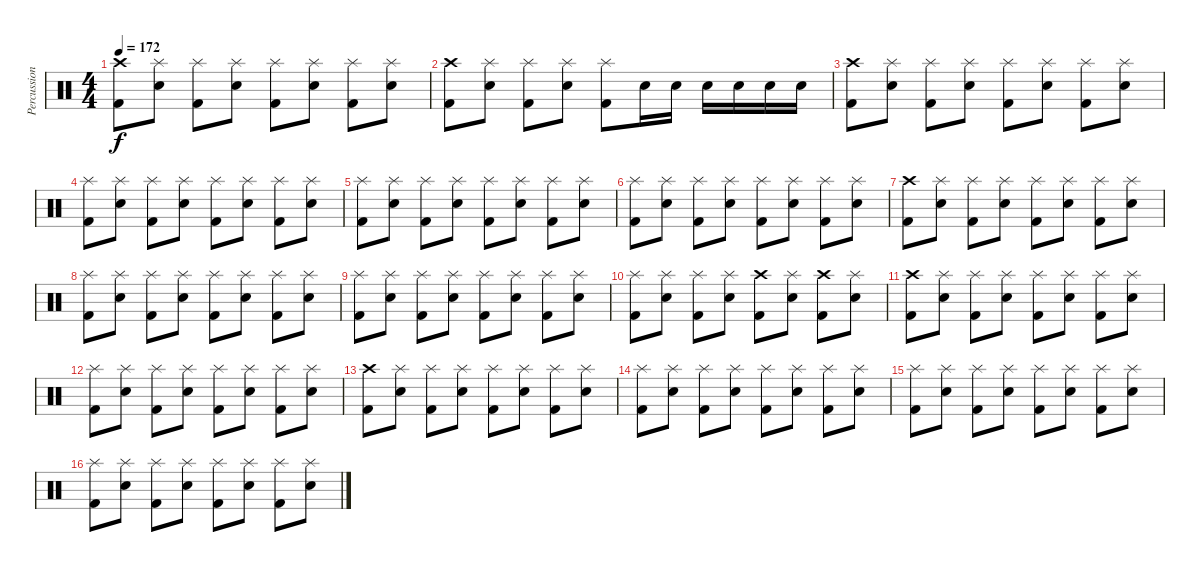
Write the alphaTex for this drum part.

\track ("Percussions" "Percussion") {instrument percussion}
\staff {score}
\articulation defaults
\ts (4 4)
\tempo 172
\clef neutral
\ks c
("Crash high (hit)" "Kick (hit) 2").8{dy f} ("Splash (hit)" "Electric Snare (hit)").8 ("Splash (hit)" "Kick (hit) 2").8 ("Splash (hit)" "Electric Snare (hit)").8 ("Splash (hit)" "Kick (hit) 2").8 ("Splash (hit)" "Electric Snare (hit)").8 ("Splash (hit)" "Kick (hit) 2").8 ("Splash (hit)" "Electric Snare (hit)").8 |
("Crash high (hit)" "Kick (hit) 2").8 ("Splash (hit)" "Electric Snare (hit)").8 ("Splash (hit)" "Kick (hit) 2").8 ("Splash (hit)" "Electric Snare (hit)").8 ("Splash (hit)" "Kick (hit) 2").8 "Electric Snare (hit)".16 "Electric Snare (hit)".16 "Electric Snare (hit)".16 "Electric Snare (hit)".16 "Electric Snare (hit)".16 "Electric Snare (hit)".16 |
("Crash high (hit)" "Kick (hit) 2").8 ("Splash (hit)" "Electric Snare (hit)").8 ("Splash (hit)" "Kick (hit) 2").8 ("Splash (hit)" "Electric Snare (hit)").8 ("Splash (hit)" "Kick (hit) 2").8 ("Splash (hit)" "Electric Snare (hit)").8 ("Splash (hit)" "Kick (hit) 2").8 ("Splash (hit)" "Electric Snare (hit)").8 |
("Splash (hit)" "Kick (hit) 2").8 ("Splash (hit)" "Electric Snare (hit)").8 ("Splash (hit)" "Kick (hit) 2").8 ("Splash (hit)" "Electric Snare (hit)").8 ("Splash (hit)" "Kick (hit) 2").8 ("Splash (hit)" "Electric Snare (hit)").8 ("Splash (hit)" "Kick (hit) 2").8 ("Splash (hit)" "Electric Snare (hit)").8 |
("Splash (hit)" "Kick (hit) 2").8 ("Splash (hit)" "Electric Snare (hit)").8 ("Splash (hit)" "Kick (hit) 2").8 ("Splash (hit)" "Electric Snare (hit)").8 ("Splash (hit)" "Kick (hit) 2").8 ("Splash (hit)" "Electric Snare (hit)").8 ("Splash (hit)" "Kick (hit) 2").8 ("Splash (hit)" "Electric Snare (hit)").8 |
("Splash (hit)" "Kick (hit) 2").8 ("Splash (hit)" "Electric Snare (hit)").8 ("Splash (hit)" "Kick (hit) 2").8 ("Splash (hit)" "Electric Snare (hit)").8 ("Splash (hit)" "Kick (hit) 2").8 ("Splash (hit)" "Electric Snare (hit)").8 ("Splash (hit)" "Kick (hit) 2").8 ("Splash (hit)" "Electric Snare (hit)").8 |
("Crash high (hit)" "Kick (hit) 2").8 ("Splash (hit)" "Electric Snare (hit)").8 ("Splash (hit)" "Kick (hit) 2").8 ("Splash (hit)" "Electric Snare (hit)").8 ("Splash (hit)" "Kick (hit) 2").8 ("Splash (hit)" "Electric Snare (hit)").8 ("Splash (hit)" "Kick (hit) 2").8 ("Splash (hit)" "Electric Snare (hit)").8 |
("Splash (hit)" "Kick (hit) 2").8 ("Splash (hit)" "Electric Snare (hit)").8 ("Splash (hit)" "Kick (hit) 2").8 ("Splash (hit)" "Electric Snare (hit)").8 ("Splash (hit)" "Kick (hit) 2").8 ("Splash (hit)" "Electric Snare (hit)").8 ("Splash (hit)" "Kick (hit) 2").8 ("Splash (hit)" "Electric Snare (hit)").8 |
("Splash (hit)" "Kick (hit) 2").8 ("Splash (hit)" "Electric Snare (hit)").8 ("Splash (hit)" "Kick (hit) 2").8 ("Splash (hit)" "Electric Snare (hit)").8 ("Splash (hit)" "Kick (hit) 2").8 ("Splash (hit)" "Electric Snare (hit)").8 ("Splash (hit)" "Kick (hit) 2").8 ("Splash (hit)" "Electric Snare (hit)").8 |
("Splash (hit)" "Kick (hit) 2").8 ("Splash (hit)" "Electric Snare (hit)").8 ("Splash (hit)" "Kick (hit) 2").8 ("Splash (hit)" "Electric Snare (hit)").8 ("Crash high (hit)" "Kick (hit) 2").8 ("Splash (hit)" "Electric Snare (hit)").8 ("Crash high (hit)" "Kick (hit) 2").8 ("Splash (hit)" "Electric Snare (hit)").8 |
("Crash high (hit)" "Kick (hit) 2").8 ("Splash (hit)" "Electric Snare (hit)").8 ("Splash (hit)" "Kick (hit) 2").8 ("Splash (hit)" "Electric Snare (hit)").8 ("Splash (hit)" "Kick (hit) 2").8 ("Splash (hit)" "Electric Snare (hit)").8 ("Splash (hit)" "Kick (hit) 2").8 ("Splash (hit)" "Electric Snare (hit)").8 |
("Splash (hit)" "Kick (hit) 2").8 ("Splash (hit)" "Electric Snare (hit)").8 ("Splash (hit)" "Kick (hit) 2").8 ("Splash (hit)" "Electric Snare (hit)").8 ("Splash (hit)" "Kick (hit) 2").8 ("Splash (hit)" "Electric Snare (hit)").8 ("Splash (hit)" "Kick (hit) 2").8 ("Splash (hit)" "Electric Snare (hit)").8 |
("Crash high (hit)" "Kick (hit) 2").8 ("Splash (hit)" "Electric Snare (hit)").8 ("Splash (hit)" "Kick (hit) 2").8 ("Splash (hit)" "Electric Snare (hit)").8 ("Splash (hit)" "Kick (hit) 2").8 ("Splash (hit)" "Electric Snare (hit)").8 ("Splash (hit)" "Kick (hit) 2").8 ("Splash (hit)" "Electric Snare (hit)").8 |
("Splash (hit)" "Kick (hit) 2").8 ("Splash (hit)" "Electric Snare (hit)").8 ("Splash (hit)" "Kick (hit) 2").8 ("Splash (hit)" "Electric Snare (hit)").8 ("Splash (hit)" "Kick (hit) 2").8 ("Splash (hit)" "Electric Snare (hit)").8 ("Splash (hit)" "Kick (hit) 2").8 ("Splash (hit)" "Electric Snare (hit)").8 |
("Splash (hit)" "Kick (hit) 2").8 ("Splash (hit)" "Electric Snare (hit)").8 ("Splash (hit)" "Kick (hit) 2").8 ("Splash (hit)" "Electric Snare (hit)").8 ("Splash (hit)" "Kick (hit) 2").8 ("Splash (hit)" "Electric Snare (hit)").8 ("Splash (hit)" "Kick (hit) 2").8 ("Splash (hit)" "Electric Snare (hit)").8 |
("Splash (hit)" "Kick (hit) 2").8 ("Splash (hit)" "Electric Snare (hit)").8 ("Splash (hit)" "Kick (hit) 2").8 ("Splash (hit)" "Electric Snare (hit)").8 ("Splash (hit)" "Kick (hit) 2").8 ("Splash (hit)" "Electric Snare (hit)").8 ("Splash (hit)" "Kick (hit) 2").8 ("Splash (hit)" "Electric Snare (hit)").8
